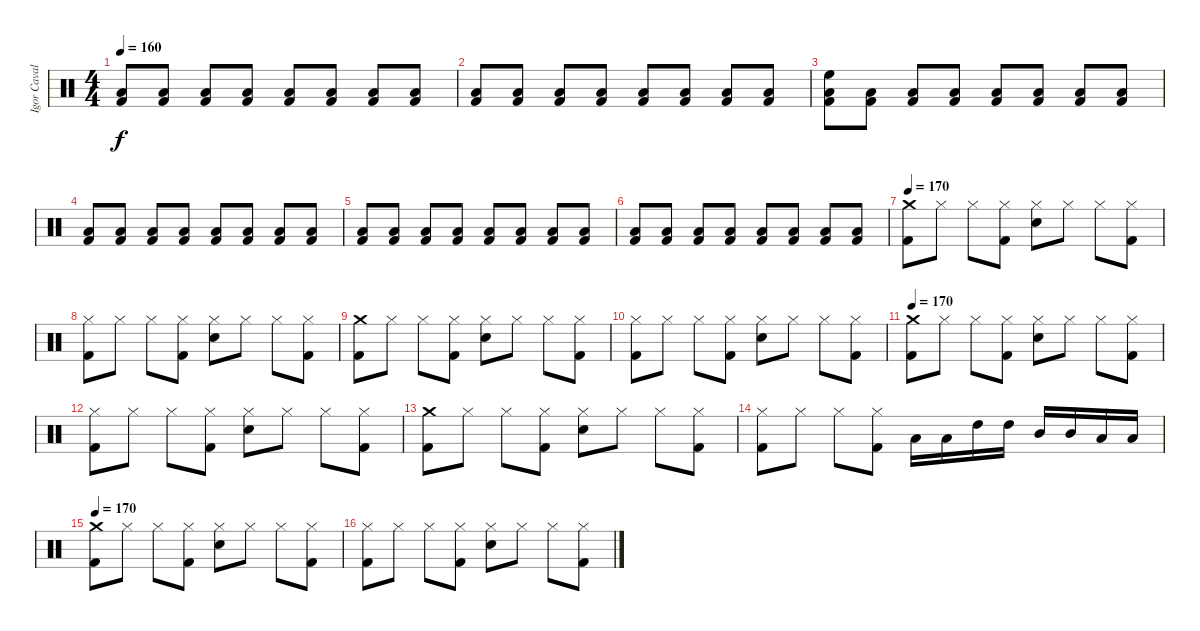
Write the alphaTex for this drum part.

\track ("Igor Cavalera" "Igor Caval") {instrument percussion}
\staff {score}
\articulation defaults
\ts (4 4)
\tempo 160
\clef neutral
\ks c
("Low Tom (hit)" "Kick (hit) 2").8{dy f} ("Low Tom (hit)" "Kick (hit) 2").8 ("Low Tom (hit)" "Kick (hit) 2").8 ("Low Tom (hit)" "Kick (hit) 2").8 ("Low Tom (hit)" "Kick (hit) 2").8 ("Low Tom (hit)" "Kick (hit) 2").8 ("Low Tom (hit)" "Kick (hit) 2").8 ("Low Tom (hit)" "Kick (hit) 2").8 |
("Low Tom (hit)" "Kick (hit) 2").8 ("Low Tom (hit)" "Kick (hit) 2").8 ("Low Tom (hit)" "Kick (hit) 2").8 ("Low Tom (hit)" "Kick (hit) 2").8 ("Low Tom (hit)" "Kick (hit) 2").8 ("Low Tom (hit)" "Kick (hit) 2").8 ("Low Tom (hit)" "Kick (hit) 2").8 ("Low Tom (hit)" "Kick (hit) 2").8 |
("High Floor Tom (hit)" "Low Tom (hit)" "Kick (hit) 2").8 ("Low Tom (hit)" "Kick (hit) 2").8 ("Low Tom (hit)" "Kick (hit) 2").8 ("Low Tom (hit)" "Kick (hit) 2").8 ("Low Tom (hit)" "Kick (hit) 2").8 ("Low Tom (hit)" "Kick (hit) 2").8 ("Low Tom (hit)" "Kick (hit) 2").8 ("Low Tom (hit)" "Kick (hit) 2").8 |
("Low Tom (hit)" "Kick (hit) 2").8 ("Low Tom (hit)" "Kick (hit) 2").8 ("Low Tom (hit)" "Kick (hit) 2").8 ("Low Tom (hit)" "Kick (hit) 2").8 ("Low Tom (hit)" "Kick (hit) 2").8 ("Low Tom (hit)" "Kick (hit) 2").8 ("Low Tom (hit)" "Kick (hit) 2").8 ("Low Tom (hit)" "Kick (hit) 2").8 |
("Low Tom (hit)" "Kick (hit) 2").8 ("Low Tom (hit)" "Kick (hit) 2").8 ("Low Tom (hit)" "Kick (hit) 2").8 ("Low Tom (hit)" "Kick (hit) 2").8 ("Low Tom (hit)" "Kick (hit) 2").8 ("Low Tom (hit)" "Kick (hit) 2").8 ("Low Tom (hit)" "Kick (hit) 2").8 ("Low Tom (hit)" "Kick (hit) 2").8 |
("Low Tom (hit)" "Kick (hit) 2").8 ("Low Tom (hit)" "Kick (hit) 2").8 ("Low Tom (hit)" "Kick (hit) 2").8 ("Low Tom (hit)" "Kick (hit) 2").8 ("Low Tom (hit)" "Kick (hit) 2").8 ("Low Tom (hit)" "Kick (hit) 2").8 ("Low Tom (hit)" "Kick (hit) 2").8 ("Low Tom (hit)" "Kick (hit) 2").8 |
\tempo 170
("Crash medium (hit)" "Kick (hit) 2").8 "Hi-Hat (closed)".8 "Hi-Hat (closed)".8 ("Hi-Hat (closed)" "Kick (hit) 2").8 ("Hi-Hat (closed)" "Snare (hit) 2").8 "Hi-Hat (closed)".8 "Hi-Hat (closed)".8 ("Hi-Hat (closed)" "Kick (hit) 2").8 |
("Hi-Hat (closed)" "Kick (hit) 2").8 "Hi-Hat (closed)".8 "Hi-Hat (closed)".8 ("Hi-Hat (closed)" "Kick (hit) 2").8 ("Hi-Hat (closed)" "Snare (hit) 2").8 "Hi-Hat (closed)".8 "Hi-Hat (closed)".8 ("Hi-Hat (closed)" "Kick (hit) 2").8 |
("Crash medium (hit)" "Kick (hit) 2").8 "Hi-Hat (closed)".8 "Hi-Hat (closed)".8 ("Hi-Hat (closed)" "Kick (hit) 2").8 ("Hi-Hat (closed)" "Snare (hit) 2").8 "Hi-Hat (closed)".8 "Hi-Hat (closed)".8 ("Hi-Hat (closed)" "Kick (hit) 2").8 |
("Hi-Hat (closed)" "Kick (hit) 2").8 "Hi-Hat (closed)".8 "Hi-Hat (closed)".8 ("Hi-Hat (closed)" "Kick (hit) 2").8 ("Hi-Hat (closed)" "Snare (hit) 2").8 "Hi-Hat (closed)".8 "Hi-Hat (closed)".8 ("Hi-Hat (closed)" "Kick (hit) 2").8 |
\tempo 170
("Crash medium (hit)" "Kick (hit) 2").8 "Hi-Hat (closed)".8 "Hi-Hat (closed)".8 ("Hi-Hat (closed)" "Kick (hit) 2").8 ("Hi-Hat (closed)" "Snare (hit) 2").8 "Hi-Hat (closed)".8 "Hi-Hat (closed)".8 ("Hi-Hat (closed)" "Kick (hit) 2").8 |
("Hi-Hat (closed)" "Kick (hit) 2").8 "Hi-Hat (closed)".8 "Hi-Hat (closed)".8 ("Hi-Hat (closed)" "Kick (hit) 2").8 ("Hi-Hat (closed)" "Snare (hit) 2").8 "Hi-Hat (closed)".8 "Hi-Hat (closed)".8 ("Hi-Hat (closed)" "Kick (hit) 2").8 |
("Crash medium (hit)" "Kick (hit) 2").8 "Hi-Hat (closed)".8 "Hi-Hat (closed)".8 ("Hi-Hat (closed)" "Kick (hit) 2").8 ("Hi-Hat (closed)" "Snare (hit) 2").8 "Hi-Hat (closed)".8 "Hi-Hat (closed)".8 ("Hi-Hat (closed)" "Kick (hit) 2").8 |
("Hi-Hat (closed)" "Kick (hit) 2").8 "Hi-Hat (closed)".8 "Hi-Hat (closed)".8 ("Hi-Hat (closed)" "Kick (hit) 2").8 "Low Tom (hit)".16 "Low Tom (hit)".16 "High Tom (hit)".16 "High Tom (hit)".16 "Mid Tom (hit)".16 "Mid Tom (hit)".16 "Low Tom (hit)".16 "Low Tom (hit)".16 |
\tempo 170
("Crash medium (hit)" "Kick (hit) 2").8 "Hi-Hat (closed)".8 "Hi-Hat (closed)".8 ("Hi-Hat (closed)" "Kick (hit) 2").8 ("Hi-Hat (closed)" "Snare (hit) 2").8 "Hi-Hat (closed)".8 "Hi-Hat (closed)".8 ("Hi-Hat (closed)" "Kick (hit) 2").8 |
("Hi-Hat (closed)" "Kick (hit) 2").8 "Hi-Hat (closed)".8 "Hi-Hat (closed)".8 ("Hi-Hat (closed)" "Kick (hit) 2").8 ("Hi-Hat (closed)" "Snare (hit) 2").8 "Hi-Hat (closed)".8 "Hi-Hat (closed)".8 ("Hi-Hat (closed)" "Kick (hit) 2").8
